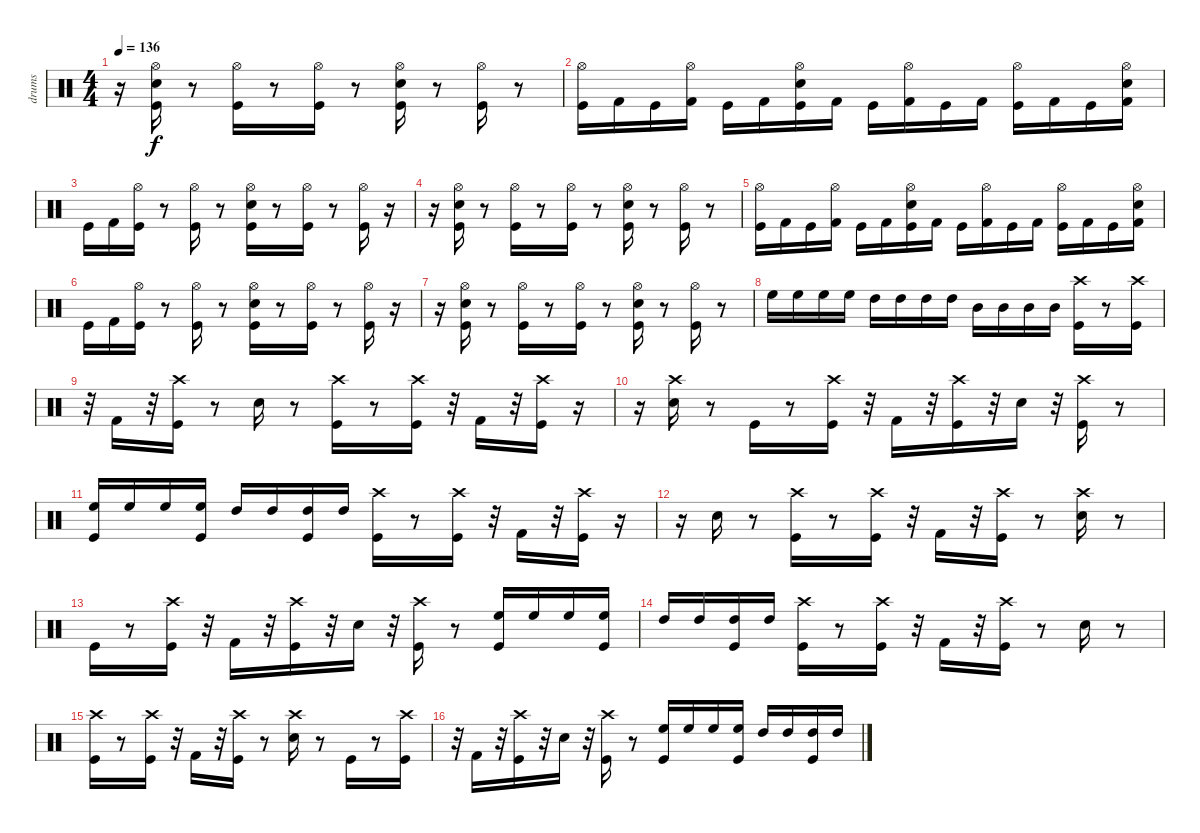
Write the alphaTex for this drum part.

\track ("drums" "drums") {instrument percussion}
\staff {score}
\articulation defaults
\ts (4 4)
\tempo 136
\clef neutral
\ks c
r.16{dy f} ("Hi-Hat (open)" "Kick (hit)" "Snare (hit) 2").16 r.8 ("Hi-Hat (open)" "Kick (hit)").16 r.8 ("Hi-Hat (open)" "Kick (hit)").16 r.8 ("Snare (hit) 2" "Hi-Hat (open)" "Kick (hit)").16 r.8 ("Hi-Hat (open)" "Kick (hit)").16 r.8 |
("Kick (hit)" "Hi-Hat (open)").16 "Kick (hit) 2".16 "Kick (hit)".16 ("Hi-Hat (open)" "Kick (hit) 2").16 "Kick (hit)".16 "Kick (hit) 2".16 ("Snare (hit) 2" "Kick (hit)" "Hi-Hat (open)").16 "Kick (hit) 2".16 "Kick (hit)".16 ("Hi-Hat (open)" "Kick (hit) 2").16 "Kick (hit)".16 "Kick (hit) 2".16 ("Kick (hit)" "Hi-Hat (open)").16 "Kick (hit) 2".16 "Kick (hit)".16 ("Kick (hit) 2" "Snare (hit) 2" "Hi-Hat (open)").16 |
"Kick (hit)".16 "Kick (hit) 2".16 ("Kick (hit)" "Hi-Hat (open)").16 r.8 ("Kick (hit)" "Hi-Hat (open)").16 r.8 ("Kick (hit)" "Snare (hit) 2" "Hi-Hat (open)").16 r.8 ("Kick (hit)" "Hi-Hat (open)").16 r.8 ("Hi-Hat (open)" "Kick (hit)").16 r.16 |
r.16 ("Hi-Hat (open)" "Kick (hit)" "Snare (hit) 2").16 r.8 ("Hi-Hat (open)" "Kick (hit)").16 r.8 ("Hi-Hat (open)" "Kick (hit)").16 r.8 ("Snare (hit) 2" "Hi-Hat (open)" "Kick (hit)").16 r.8 ("Hi-Hat (open)" "Kick (hit)").16 r.8 |
("Kick (hit)" "Hi-Hat (open)").16 "Kick (hit) 2".16 "Kick (hit)".16 ("Hi-Hat (open)" "Kick (hit) 2").16 "Kick (hit)".16 "Kick (hit) 2".16 ("Snare (hit) 2" "Kick (hit)" "Hi-Hat (open)").16 "Kick (hit) 2".16 "Kick (hit)".16 ("Hi-Hat (open)" "Kick (hit) 2").16 "Kick (hit)".16 "Kick (hit) 2".16 ("Kick (hit)" "Hi-Hat (open)").16 "Kick (hit) 2".16 "Kick (hit)".16 ("Kick (hit) 2" "Snare (hit) 2" "Hi-Hat (open)").16 |
"Kick (hit)".16 "Kick (hit) 2".16 ("Kick (hit)" "Hi-Hat (open)").16 r.8 ("Kick (hit)" "Hi-Hat (open)").16 r.8 ("Kick (hit)" "Snare (hit) 2" "Hi-Hat (open)").16 r.8 ("Kick (hit)" "Hi-Hat (open)").16 r.8 ("Hi-Hat (open)" "Kick (hit)").16 r.16 |
r.16 ("Hi-Hat (open)" "Kick (hit)" "Snare (hit) 2").16 r.8 ("Hi-Hat (open)" "Kick (hit)").16 r.8 ("Hi-Hat (open)" "Kick (hit)").16 r.8 ("Snare (hit) 2" "Hi-Hat (open)" "Kick (hit)").16 r.8 ("Hi-Hat (open)" "Kick (hit)").16 r.8 |
"High Floor Tom (hit)".16 "High Floor Tom (hit)".16 "High Floor Tom (hit)".16 "High Floor Tom (hit)".16 "High Tom (hit)".16 "High Tom (hit)".16 "High Tom (hit)".16 "High Tom (hit)".16 "Mid Tom (hit)".16 "Mid Tom (hit)".16 "Mid Tom (hit)".16 "Mid Tom (hit)".16 ("Crash high (hit)" "Kick (hit)").16 r.8 ("Kick (hit)" "Crash high (hit)").16 |
r.32 "Kick (hit) 2".16 r.32 ("Kick (hit)" "Crash high (hit)").16 r.8 "Snare (hit) 2".16 r.8 ("Kick (hit)" "Crash high (hit)").16 r.8 ("Kick (hit)" "Crash high (hit)").16 r.32 "Kick (hit) 2".16 r.32 ("Kick (hit)" "Crash high (hit)").16 r.16 |
r.16 ("Crash high (hit)" "Snare (hit) 2").16 r.8 "Kick (hit)".16 r.8 ("Crash high (hit)" "Kick (hit)").16 r.32 "Kick (hit) 2".16 r.32 ("Kick (hit)" "Crash high (hit)").16 r.32 "Snare (hit) 2".16 r.32 ("Crash high (hit)" "Kick (hit)").16 r.8 |
("Kick (hit)" "High Floor Tom (hit)").16 "High Floor Tom (hit)".16 "High Floor Tom (hit)".16 ("Kick (hit)" "High Floor Tom (hit)").16 "High Tom (hit)".16 "High Tom (hit)".16 ("Kick (hit)" "High Tom (hit)").16 "High Tom (hit)".16 ("Crash high (hit)" "Kick (hit)").16 r.8 ("Kick (hit)" "Crash high (hit)").16 r.32 "Kick (hit) 2".16 r.32 ("Kick (hit)" "Crash high (hit)").16 r.16 |
r.16 "Snare (hit) 2".16 r.8 ("Kick (hit)" "Crash high (hit)").16 r.8 ("Kick (hit)" "Crash high (hit)").16 r.32 "Kick (hit) 2".16 r.32 ("Kick (hit)" "Crash high (hit)").16 r.8 ("Crash high (hit)" "Snare (hit) 2").16 r.8 |
"Kick (hit)".16 r.8 ("Crash high (hit)" "Kick (hit)").16 r.32 "Kick (hit) 2".16 r.32 ("Kick (hit)" "Crash high (hit)").16 r.32 "Snare (hit) 2".16 r.32 ("Crash high (hit)" "Kick (hit)").16 r.8 ("Kick (hit)" "High Floor Tom (hit)").16 "High Floor Tom (hit)".16 "High Floor Tom (hit)".16 ("Kick (hit)" "High Floor Tom (hit)").16 |
"High Tom (hit)".16 "High Tom (hit)".16 ("Kick (hit)" "High Tom (hit)").16 "High Tom (hit)".16 ("Crash high (hit)" "Kick (hit)").16 r.8 ("Kick (hit)" "Crash high (hit)").16 r.32 "Kick (hit) 2".16 r.32 ("Kick (hit)" "Crash high (hit)").16 r.8 "Snare (hit) 2".16 r.8 |
("Kick (hit)" "Crash high (hit)").16 r.8 ("Kick (hit)" "Crash high (hit)").16 r.32 "Kick (hit) 2".16 r.32 ("Kick (hit)" "Crash high (hit)").16 r.8 ("Crash high (hit)" "Snare (hit) 2").16 r.8 "Kick (hit)".16 r.8 ("Crash high (hit)" "Kick (hit)").16 |
r.32 "Kick (hit) 2".16 r.32 ("Kick (hit)" "Crash high (hit)").16 r.32 "Snare (hit) 2".16 r.32 ("Crash high (hit)" "Kick (hit)").16 r.8 ("Kick (hit)" "High Floor Tom (hit)").16 "High Floor Tom (hit)".16 "High Floor Tom (hit)".16 ("Kick (hit)" "High Floor Tom (hit)").16 "High Tom (hit)".16 "High Tom (hit)".16 ("Kick (hit)" "High Tom (hit)").16 "High Tom (hit)".16
